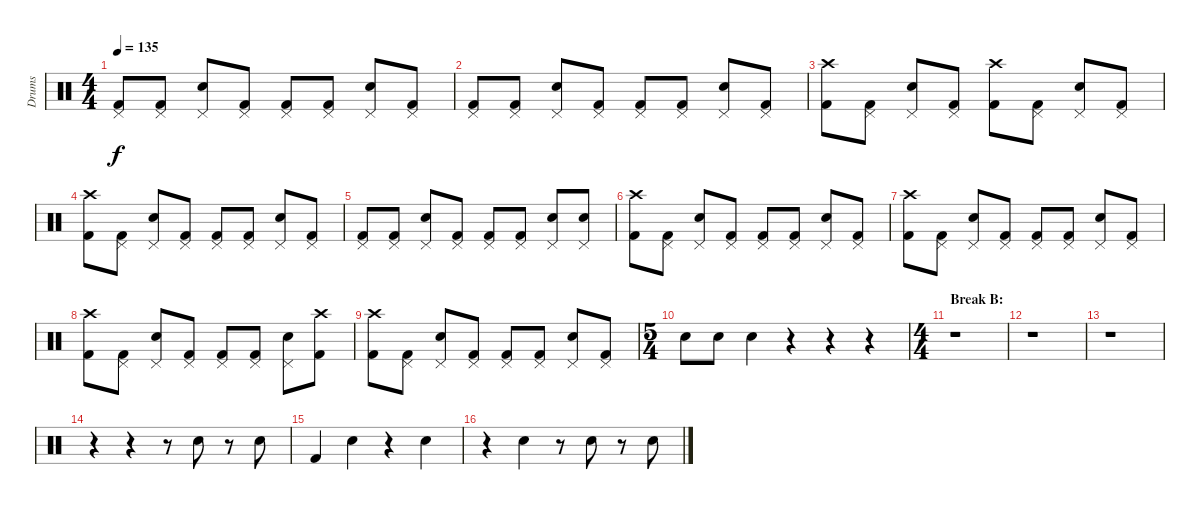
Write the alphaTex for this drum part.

\track ("Drums" "Drums") {instrument percussion}
\staff {score}
\articulation defaults
\ts (4 4)
\tempo 135
\clef neutral
\ks c
("Pedal Hi-Hat (hit)" "Kick (hit) 2").8{dy f} ("Pedal Hi-Hat (hit)" "Kick (hit) 2").8 ("Pedal Hi-Hat (hit)" "Snare (hit) 2").8 ("Pedal Hi-Hat (hit)" "Kick (hit) 2").8 ("Pedal Hi-Hat (hit)" "Kick (hit) 2").8 ("Pedal Hi-Hat (hit)" "Kick (hit) 2").8 ("Pedal Hi-Hat (hit)" "Snare (hit) 2").8 ("Pedal Hi-Hat (hit)" "Kick (hit) 2").8 |
("Pedal Hi-Hat (hit)" "Kick (hit) 2").8 ("Pedal Hi-Hat (hit)" "Kick (hit) 2").8 ("Pedal Hi-Hat (hit)" "Snare (hit) 2").8 ("Pedal Hi-Hat (hit)" "Kick (hit) 2").8 ("Pedal Hi-Hat (hit)" "Kick (hit) 2").8 ("Pedal Hi-Hat (hit)" "Kick (hit) 2").8 ("Pedal Hi-Hat (hit)" "Snare (hit) 2").8 ("Pedal Hi-Hat (hit)" "Kick (hit) 2").8 |
("Crash high (hit)" "Kick (hit) 2").8 ("Pedal Hi-Hat (hit)" "Kick (hit) 2").8 ("Pedal Hi-Hat (hit)" "Snare (hit) 2").8 ("Pedal Hi-Hat (hit)" "Kick (hit) 2").8 ("Crash high (hit)" "Kick (hit) 2").8 ("Pedal Hi-Hat (hit)" "Kick (hit) 2").8 ("Pedal Hi-Hat (hit)" "Snare (hit) 2").8 ("Pedal Hi-Hat (hit)" "Kick (hit) 2").8 |
("Crash high (hit)" "Kick (hit) 2").8 ("Pedal Hi-Hat (hit)" "Kick (hit) 2").8 ("Pedal Hi-Hat (hit)" "Snare (hit) 2").8 ("Pedal Hi-Hat (hit)" "Kick (hit) 2").8 ("Pedal Hi-Hat (hit)" "Kick (hit) 2").8 ("Pedal Hi-Hat (hit)" "Kick (hit) 2").8 ("Pedal Hi-Hat (hit)" "Snare (hit) 2").8 ("Pedal Hi-Hat (hit)" "Kick (hit) 2").8 |
("Pedal Hi-Hat (hit)" "Kick (hit) 2").8 ("Pedal Hi-Hat (hit)" "Kick (hit) 2").8 ("Pedal Hi-Hat (hit)" "Snare (hit) 2").8 ("Pedal Hi-Hat (hit)" "Kick (hit) 2").8 ("Pedal Hi-Hat (hit)" "Kick (hit) 2").8 ("Pedal Hi-Hat (hit)" "Kick (hit) 2").8 ("Pedal Hi-Hat (hit)" "Snare (hit) 2").8 ("Pedal Hi-Hat (hit)" "Snare (hit) 2").8 |
("Crash high (hit)" "Kick (hit) 2").8 ("Pedal Hi-Hat (hit)" "Kick (hit) 2").8 ("Pedal Hi-Hat (hit)" "Snare (hit) 2").8 ("Pedal Hi-Hat (hit)" "Kick (hit) 2").8 ("Pedal Hi-Hat (hit)" "Kick (hit) 2").8 ("Pedal Hi-Hat (hit)" "Kick (hit) 2").8 ("Pedal Hi-Hat (hit)" "Snare (hit) 2").8 ("Pedal Hi-Hat (hit)" "Kick (hit) 2").8 |
("Crash high (hit)" "Kick (hit) 2").8 ("Pedal Hi-Hat (hit)" "Kick (hit) 2").8 ("Pedal Hi-Hat (hit)" "Snare (hit) 2").8 ("Pedal Hi-Hat (hit)" "Kick (hit) 2").8 ("Pedal Hi-Hat (hit)" "Kick (hit) 2").8 ("Pedal Hi-Hat (hit)" "Kick (hit) 2").8 ("Pedal Hi-Hat (hit)" "Snare (hit) 2").8 ("Pedal Hi-Hat (hit)" "Kick (hit) 2").8 |
("Crash high (hit)" "Kick (hit) 2").8 ("Pedal Hi-Hat (hit)" "Kick (hit) 2").8 ("Pedal Hi-Hat (hit)" "Snare (hit) 2").8 ("Pedal Hi-Hat (hit)" "Kick (hit) 2").8 ("Pedal Hi-Hat (hit)" "Kick (hit) 2").8 ("Pedal Hi-Hat (hit)" "Kick (hit) 2").8 ("Pedal Hi-Hat (hit)" "Snare (hit) 2").8 ("Crash high (hit)" "Kick (hit) 2").8 |
("Crash high (hit)" "Kick (hit) 2").8 ("Pedal Hi-Hat (hit)" "Kick (hit) 2").8 ("Pedal Hi-Hat (hit)" "Snare (hit) 2").8 ("Pedal Hi-Hat (hit)" "Kick (hit) 2").8 ("Pedal Hi-Hat (hit)" "Kick (hit) 2").8 ("Pedal Hi-Hat (hit)" "Kick (hit) 2").8 ("Pedal Hi-Hat (hit)" "Snare (hit) 2").8 ("Pedal Hi-Hat (hit)" "Kick (hit) 2").8 |
\ts (5 4)
"Snare (hit) 2".8 "Snare (hit) 2".8 "Snare (hit) 2".4 r.4 r.4 r.4 |
\ts (4 4)
\section ("" "Break B:")
r.1 |
r.1 |
r.1 |
r.4 r.4 r.8 "Snare (hit) 2".8 r.8 "Snare (hit) 2".8 |
"Kick (hit) 2".4 "Snare (hit) 2".4 r.4 "Snare (hit) 2".4 |
r.4 "Snare (hit) 2".4 r.8 "Snare (hit) 2".8 r.8 "Snare (hit) 2".8
